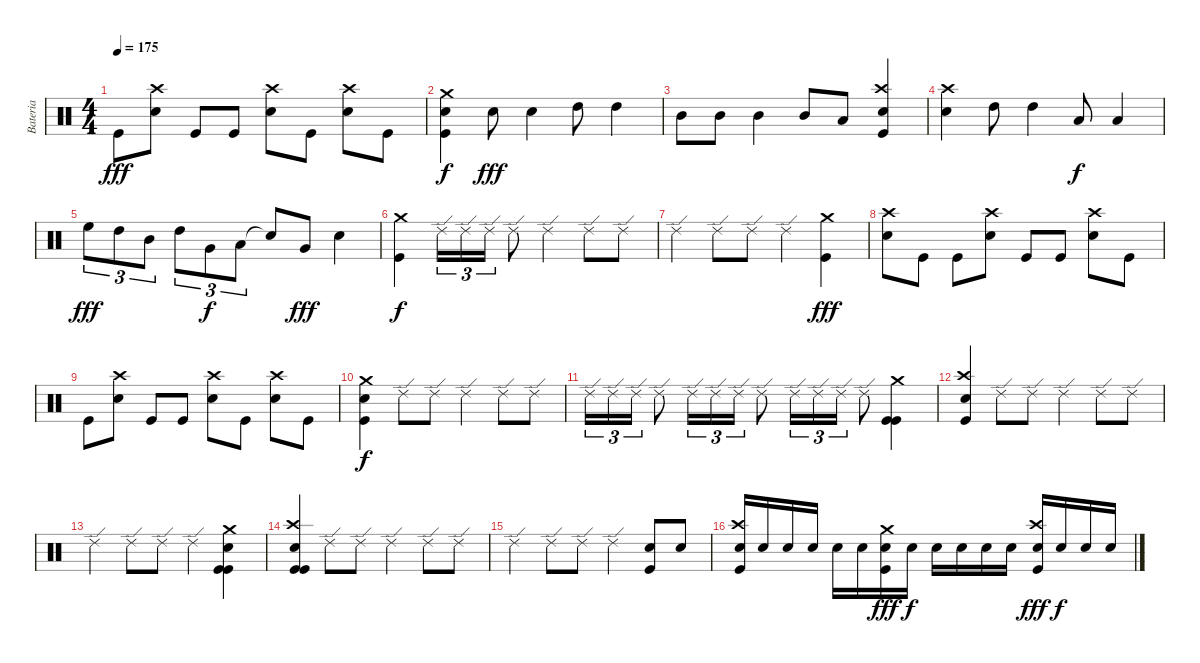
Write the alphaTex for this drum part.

\track ("Bateria" "Bateria") {instrument percussion}
\staff {score}
\articulation defaults
\ts (4 4)
\tempo 175
\clef neutral
\ks c "Kick (hit)".8{dy fff}
("Crash high (hit)" "Electric Snare (hit)").8 "Kick (hit)".8 "Kick (hit)".8 ("Crash high (hit)" "Electric Snare (hit)").8 "Kick (hit)".8 ("Crash high (hit)" "Electric Snare (hit)").8 "Kick (hit)".8 |
("Crash medium (hit)" "Electric Snare (hit)" "Kick (hit)").4{dy f} "Electric Snare (hit)".8{dy fff} "Electric Snare (hit)".4 "High Tom (hit)".8 "High Tom (hit)".4 |
"Mid Tom (hit)".8 "Mid Tom (hit)".8 "Mid Tom (hit)".4 "Mid Tom (hit)".8 "Low Tom (hit)".8 ("Crash high (hit)" "Electric Snare (hit)" "Kick (hit)").4 |
("Crash high (hit)" "Electric Snare (hit)").4 "High Tom (hit)".8 "High Tom (hit)".4 "Low Tom (hit)".8{dy f} "Low Tom (hit)".4 |
"High Floor Tom (hit)".8{tu (3 2) dy fff} "High Tom (hit)".8{tu (3 2)} "Mid Tom (hit)".8{tu (3 2)} "High Tom (hit)".8{tu (3 2)} "Very Low Tom (hit)".8{tu (3 2) dy f} "Low Floor Tom (hit)".8{tu (3 2)} "Snare (hit)"{t}.8 "Very Low Tom (hit)".8{dy fff} "Electric Snare (hit)".4 |
("Crash medium (hit)" "Kick (hit)").4{dy f} "Ride (edge) 2".16{tu (3 2)} "Ride (edge) 2".16{tu (3 2)} "Ride (edge) 2".16{tu (3 2)} "Ride (edge) 2".8 "Ride (edge) 2".4 "Ride (edge) 2".8 "Ride (edge) 2".8 |
"Ride (edge) 2".4 "Ride (edge) 2".8 "Ride (edge) 2".8 "Ride (edge) 2".4 ("Crash medium (hit)" "Kick (hit)").4{dy fff} |
("Crash high (hit)" "Electric Snare (hit)").8 "Kick (hit)".8 "Kick (hit)".8 ("Crash high (hit)" "Electric Snare (hit)").8 "Kick (hit)".8 "Kick (hit)".8 ("Crash high (hit)" "Electric Snare (hit)").8 "Kick (hit)".8 |
"Kick (hit)".8 ("Crash high (hit)" "Electric Snare (hit)").8 "Kick (hit)".8 "Kick (hit)".8 ("Crash high (hit)" "Electric Snare (hit)").8 "Kick (hit)".8 ("Crash high (hit)" "Electric Snare (hit)").8 "Kick (hit)".8 |
("Crash medium (hit)" "Electric Snare (hit)" "Kick (hit)").4{dy f} "Ride (edge) 2".8 "Ride (edge) 2".8 "Ride (edge) 2".4 "Ride (edge) 2".8 "Ride (edge) 2".8 |
"Ride (edge) 2".16{tu (3 2)} "Ride (edge) 2".16{tu (3 2)} "Ride (edge) 2".16{tu (3 2)} "Ride (edge) 2".8 "Ride (edge) 2".16{tu (3 2)} "Ride (edge) 2".16{tu (3 2)} "Ride (edge) 2".16{tu (3 2)} "Ride (edge) 2".8 "Ride (edge) 2".16{tu (3 2)} "Ride (edge) 2".16{tu (3 2)} "Ride (edge) 2".16{tu (3 2)} "Ride (edge) 2".8 ("Crash medium (hit)" "Kick (hit)" "Kick (hit)").4 |
("Crash high (hit)" "Electric Snare (hit)" "Kick (hit)").4 "Ride (edge) 2".8 "Ride (edge) 2".8 "Ride (edge) 2".4 "Ride (edge) 2".8 "Ride (edge) 2".8 |
"Ride (edge) 2".4 "Ride (edge) 2".8 "Ride (edge) 2".8 "Ride (edge) 2".4 ("Crash medium (hit)" "Electric Snare (hit)" "Kick (hit)" "Kick (hit)").4 |
("Crash high (hit)" "Electric Snare (hit)" "Kick (hit)" "Kick (hit)").4 "Ride (edge) 2".8 "Ride (edge) 2".8 "Ride (edge) 2".4 "Ride (edge) 2".8 "Ride (edge) 2".8 |
"Ride (edge) 2".4 "Ride (edge) 2".8 "Ride (edge) 2".8 "Ride (edge) 2".4 ("Electric Snare (hit)" "Kick (hit)").8 "Electric Snare (hit)".8 |
("Crash high (hit)" "Electric Snare (hit)" "Kick (hit)").16 "Electric Snare (hit)".16 "Electric Snare (hit)".16 "Electric Snare (hit)".16 "Electric Snare (hit)".16 "Electric Snare (hit)".16 ("Crash medium (hit)" "Electric Snare (hit)" "Kick (hit)").16{dy fff} "Electric Snare (hit)".16{dy f} "Electric Snare (hit)".16 "Electric Snare (hit)".16 "Electric Snare (hit)".16 "Electric Snare (hit)".16 ("Crash high (hit)" "Electric Snare (hit)" "Kick (hit)").16{dy fff} "Electric Snare (hit)".16{dy f} "Electric Snare (hit)".16 "Electric Snare (hit)".16
